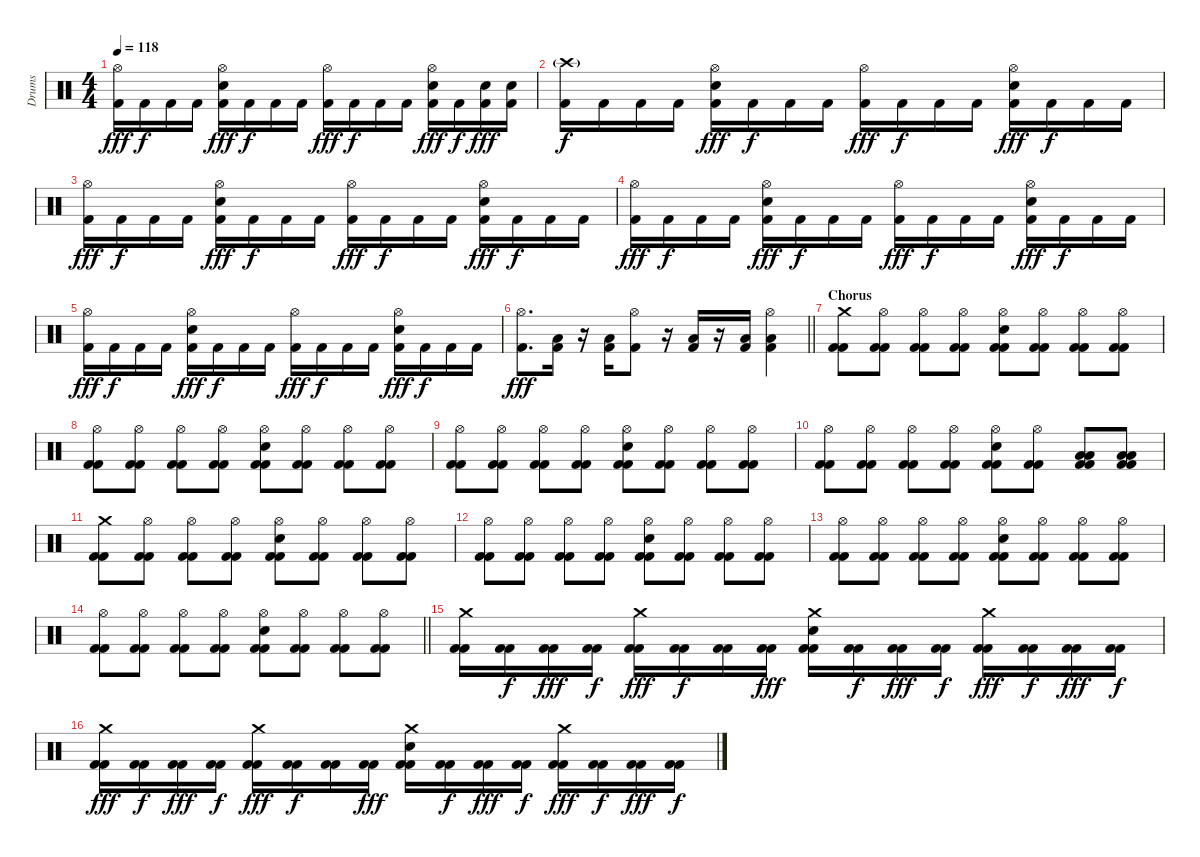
\track ("Drums" "Drums") {instrument percussion}
\staff {score}
\articulation defaults
\ts (4 4)
\tempo 118
\clef neutral
\ks c
("Hi-Hat (open)" "Kick (hit) 2").16{dy fff} "Kick (hit) 2".16{dy f} "Kick (hit) 2".16 "Kick (hit) 2".16 ("Hi-Hat (open)" "Electric Snare (hit)" "Kick (hit) 2").16{dy fff} "Kick (hit) 2".16{dy f} "Kick (hit) 2".16 "Kick (hit) 2".16 ("Hi-Hat (open)" "Kick (hit) 2").16{dy fff} "Kick (hit) 2".16{dy f} "Kick (hit) 2".16 "Kick (hit) 2".16 ("Hi-Hat (open)" "Electric Snare (hit)" "Kick (hit) 2").16{dy fff} "Kick (hit) 2".16{dy f} ("Electric Snare (hit)" "Kick (hit) 2").16{dy fff} ("Electric Snare (hit)" "Kick (hit) 2").16 |
("Crash high (hit)"{g} "Kick (hit) 2").16{dy f} "Kick (hit) 2".16 "Kick (hit) 2".16 "Kick (hit) 2".16 ("Hi-Hat (open)" "Electric Snare (hit)" "Kick (hit) 2").16{dy fff} "Kick (hit) 2".16{dy f} "Kick (hit) 2".16 "Kick (hit) 2".16 ("Hi-Hat (open)" "Kick (hit) 2").16{dy fff} "Kick (hit) 2".16{dy f} "Kick (hit) 2".16 "Kick (hit) 2".16 ("Hi-Hat (open)" "Electric Snare (hit)" "Kick (hit) 2").16{dy fff} "Kick (hit) 2".16{dy f} "Kick (hit) 2".16 "Kick (hit) 2".16 |
("Hi-Hat (open)" "Kick (hit) 2").16{dy fff} "Kick (hit) 2".16{dy f} "Kick (hit) 2".16 "Kick (hit) 2".16 ("Hi-Hat (open)" "Electric Snare (hit)" "Kick (hit) 2").16{dy fff} "Kick (hit) 2".16{dy f} "Kick (hit) 2".16 "Kick (hit) 2".16 ("Hi-Hat (open)" "Kick (hit) 2").16{dy fff} "Kick (hit) 2".16{dy f} "Kick (hit) 2".16 "Kick (hit) 2".16 ("Hi-Hat (open)" "Electric Snare (hit)" "Kick (hit) 2").16{dy fff} "Kick (hit) 2".16{dy f} "Kick (hit) 2".16 "Kick (hit) 2".16 |
("Hi-Hat (open)" "Kick (hit) 2").16{dy fff} "Kick (hit) 2".16{dy f} "Kick (hit) 2".16 "Kick (hit) 2".16 ("Hi-Hat (open)" "Electric Snare (hit)" "Kick (hit) 2").16{dy fff} "Kick (hit) 2".16{dy f} "Kick (hit) 2".16 "Kick (hit) 2".16 ("Hi-Hat (open)" "Kick (hit) 2").16{dy fff} "Kick (hit) 2".16{dy f} "Kick (hit) 2".16 "Kick (hit) 2".16 ("Hi-Hat (open)" "Electric Snare (hit)" "Kick (hit) 2").16{dy fff} "Kick (hit) 2".16{dy f} "Kick (hit) 2".16 "Kick (hit) 2".16 |
("Hi-Hat (open)" "Kick (hit) 2").16{dy fff} "Kick (hit) 2".16{dy f} "Kick (hit) 2".16 "Kick (hit) 2".16 ("Hi-Hat (open)" "Electric Snare (hit)" "Kick (hit) 2").16{dy fff} "Kick (hit) 2".16{dy f} "Kick (hit) 2".16 "Kick (hit) 2".16 ("Hi-Hat (open)" "Kick (hit) 2").16{dy fff} "Kick (hit) 2".16{dy f} "Kick (hit) 2".16 "Kick (hit) 2".16 ("Hi-Hat (open)" "Electric Snare (hit)" "Kick (hit) 2").16{dy fff} "Kick (hit) 2".16{dy f} "Kick (hit) 2".16 "Kick (hit) 2".16 |
\barLineRight lightlight
("Hi-Hat (open)" "Kick (hit) 2").8{d dy fff} ("Low Tom (hit)" "Kick (hit) 2").16 r.16 ("Low Tom (hit)" "Kick (hit) 2").16 ("Hi-Hat (open)" "Kick (hit) 2").8 r.16 ("Low Tom (hit)" "Kick (hit) 2").16 r.16 ("Low Tom (hit)" "Kick (hit) 2").16 ("Hi-Hat (open)" "Low Floor Tom (hit)" "Kick (hit) 2").4 |
\section ("" "Chorus")
("Crash medium (hit)" "Kick (hit) 2" "Kick (hit) 2").8 ("Hi-Hat (open)" "Kick (hit) 2" "Kick (hit) 2").8 ("Hi-Hat (open)" "Kick (hit) 2" "Kick (hit) 2").8 ("Hi-Hat (open)" "Kick (hit) 2" "Kick (hit) 2").8 ("Hi-Hat (open)" "Electric Snare (hit)" "Kick (hit) 2" "Kick (hit) 2").8 ("Hi-Hat (open)" "Kick (hit) 2" "Kick (hit) 2").8 ("Hi-Hat (open)" "Kick (hit) 2" "Kick (hit) 2").8 ("Hi-Hat (open)" "Kick (hit) 2" "Kick (hit) 2").8 |
("Hi-Hat (open)" "Kick (hit) 2" "Kick (hit) 2").8 ("Hi-Hat (open)" "Kick (hit) 2" "Kick (hit) 2").8 ("Hi-Hat (open)" "Kick (hit) 2" "Kick (hit) 2").8 ("Hi-Hat (open)" "Kick (hit) 2" "Kick (hit) 2").8 ("Hi-Hat (open)" "Electric Snare (hit)" "Kick (hit) 2" "Kick (hit) 2").8 ("Hi-Hat (open)" "Kick (hit) 2" "Kick (hit) 2").8 ("Hi-Hat (open)" "Kick (hit) 2" "Kick (hit) 2").8 ("Hi-Hat (open)" "Kick (hit) 2" "Kick (hit) 2").8 |
("Hi-Hat (open)" "Kick (hit) 2" "Kick (hit) 2").8 ("Hi-Hat (open)" "Kick (hit) 2" "Kick (hit) 2").8 ("Hi-Hat (open)" "Kick (hit) 2" "Kick (hit) 2").8 ("Hi-Hat (open)" "Kick (hit) 2" "Kick (hit) 2").8 ("Hi-Hat (open)" "Electric Snare (hit)" "Kick (hit) 2" "Kick (hit) 2").8 ("Hi-Hat (open)" "Kick (hit) 2" "Kick (hit) 2").8 ("Hi-Hat (open)" "Kick (hit) 2" "Kick (hit) 2").8 ("Hi-Hat (open)" "Kick (hit) 2" "Kick (hit) 2").8 |
("Hi-Hat (open)" "Kick (hit) 2" "Kick (hit) 2").8 ("Hi-Hat (open)" "Kick (hit) 2" "Kick (hit) 2").8 ("Hi-Hat (open)" "Kick (hit) 2" "Kick (hit) 2").8 ("Hi-Hat (open)" "Kick (hit) 2" "Kick (hit) 2").8 ("Hi-Hat (open)" "Electric Snare (hit)" "Kick (hit) 2" "Kick (hit) 2").8 ("Hi-Hat (open)" "Kick (hit) 2" "Kick (hit) 2").8 ("Low Floor Tom (hit)" "Low Tom (hit)" "Kick (hit) 2" "Kick (hit) 2").8 ("Low Floor Tom (hit)" "Low Tom (hit)" "Kick (hit) 2" "Kick (hit) 2").8 |
("Crash medium (hit)" "Kick (hit) 2" "Kick (hit) 2").8 ("Hi-Hat (open)" "Kick (hit) 2" "Kick (hit) 2").8 ("Hi-Hat (open)" "Kick (hit) 2" "Kick (hit) 2").8 ("Hi-Hat (open)" "Kick (hit) 2" "Kick (hit) 2").8 ("Hi-Hat (open)" "Electric Snare (hit)" "Kick (hit) 2" "Kick (hit) 2").8 ("Hi-Hat (open)" "Kick (hit) 2" "Kick (hit) 2").8 ("Hi-Hat (open)" "Kick (hit) 2" "Kick (hit) 2").8 ("Hi-Hat (open)" "Kick (hit) 2" "Kick (hit) 2").8 |
("Hi-Hat (open)" "Kick (hit) 2" "Kick (hit) 2").8 ("Hi-Hat (open)" "Kick (hit) 2" "Kick (hit) 2").8 ("Hi-Hat (open)" "Kick (hit) 2" "Kick (hit) 2").8 ("Hi-Hat (open)" "Kick (hit) 2" "Kick (hit) 2").8 ("Hi-Hat (open)" "Electric Snare (hit)" "Kick (hit) 2" "Kick (hit) 2").8 ("Hi-Hat (open)" "Kick (hit) 2" "Kick (hit) 2").8 ("Hi-Hat (open)" "Kick (hit) 2" "Kick (hit) 2").8 ("Hi-Hat (open)" "Kick (hit) 2" "Kick (hit) 2").8 |
("Hi-Hat (open)" "Kick (hit) 2" "Kick (hit) 2").8 ("Hi-Hat (open)" "Kick (hit) 2" "Kick (hit) 2").8 ("Hi-Hat (open)" "Kick (hit) 2" "Kick (hit) 2").8 ("Hi-Hat (open)" "Kick (hit) 2" "Kick (hit) 2").8 ("Hi-Hat (open)" "Electric Snare (hit)" "Kick (hit) 2" "Kick (hit) 2").8 ("Hi-Hat (open)" "Kick (hit) 2" "Kick (hit) 2").8 ("Hi-Hat (open)" "Kick (hit) 2" "Kick (hit) 2").8 ("Hi-Hat (open)" "Kick (hit) 2" "Kick (hit) 2").8 |
\barLineRight lightlight
("Hi-Hat (open)" "Kick (hit) 2" "Kick (hit) 2").8 ("Hi-Hat (open)" "Kick (hit) 2" "Kick (hit) 2").8 ("Hi-Hat (open)" "Kick (hit) 2" "Kick (hit) 2").8 ("Hi-Hat (open)" "Kick (hit) 2" "Kick (hit) 2").8 ("Hi-Hat (open)" "Electric Snare (hit)" "Kick (hit) 2" "Kick (hit) 2").8 ("Hi-Hat (open)" "Kick (hit) 2" "Kick (hit) 2").8 ("Hi-Hat (open)" "Kick (hit) 2" "Kick (hit) 2").8 ("Hi-Hat (open)" "Kick (hit) 2" "Kick (hit) 2").8 |
("Crash medium (hit)" "Kick (hit) 2" "Kick (hit) 2").16 ("Kick (hit) 2" "Kick (hit) 2").16{dy f} ("Kick (hit) 2" "Kick (hit) 2").16{dy fff} ("Kick (hit) 2" "Kick (hit) 2").16{dy f} ("Crash medium (hit)" "Kick (hit) 2" "Kick (hit) 2").16{dy fff} ("Kick (hit) 2" "Kick (hit) 2").16{dy f} ("Kick (hit) 2" "Kick (hit) 2").16 ("Kick (hit) 2" "Kick (hit) 2").16{dy fff} ("Crash medium (hit)" "Electric Snare (hit)" "Kick (hit) 2" "Kick (hit) 2").16 ("Kick (hit) 2" "Kick (hit) 2").16{dy f} ("Kick (hit) 2" "Kick (hit) 2").16{dy fff} ("Kick (hit) 2" "Kick (hit) 2").16{dy f} ("Crash medium (hit)" "Kick (hit) 2" "Kick (hit) 2").16{dy fff} ("Kick (hit) 2" "Kick (hit) 2").16{dy f} ("Kick (hit) 2" "Kick (hit) 2").16{dy fff} ("Kick (hit) 2" "Kick (hit) 2").16{dy f} |
("Crash medium (hit)" "Kick (hit) 2" "Kick (hit) 2").16{dy fff} ("Kick (hit) 2" "Kick (hit) 2").16{dy f} ("Kick (hit) 2" "Kick (hit) 2").16{dy fff} ("Kick (hit) 2" "Kick (hit) 2").16{dy f} ("Crash medium (hit)" "Kick (hit) 2" "Kick (hit) 2").16{dy fff} ("Kick (hit) 2" "Kick (hit) 2").16{dy f} ("Kick (hit) 2" "Kick (hit) 2").16 ("Kick (hit) 2" "Kick (hit) 2").16{dy fff} ("Crash medium (hit)" "Electric Snare (hit)" "Kick (hit) 2" "Kick (hit) 2").16 ("Kick (hit) 2" "Kick (hit) 2").16{dy f} ("Kick (hit) 2" "Kick (hit) 2").16{dy fff} ("Kick (hit) 2" "Kick (hit) 2").16{dy f} ("Crash medium (hit)" "Kick (hit) 2" "Kick (hit) 2").16{dy fff} ("Kick (hit) 2" "Kick (hit) 2").16{dy f} ("Kick (hit) 2" "Kick (hit) 2").16{dy fff} ("Kick (hit) 2" "Kick (hit) 2").16{dy f}
